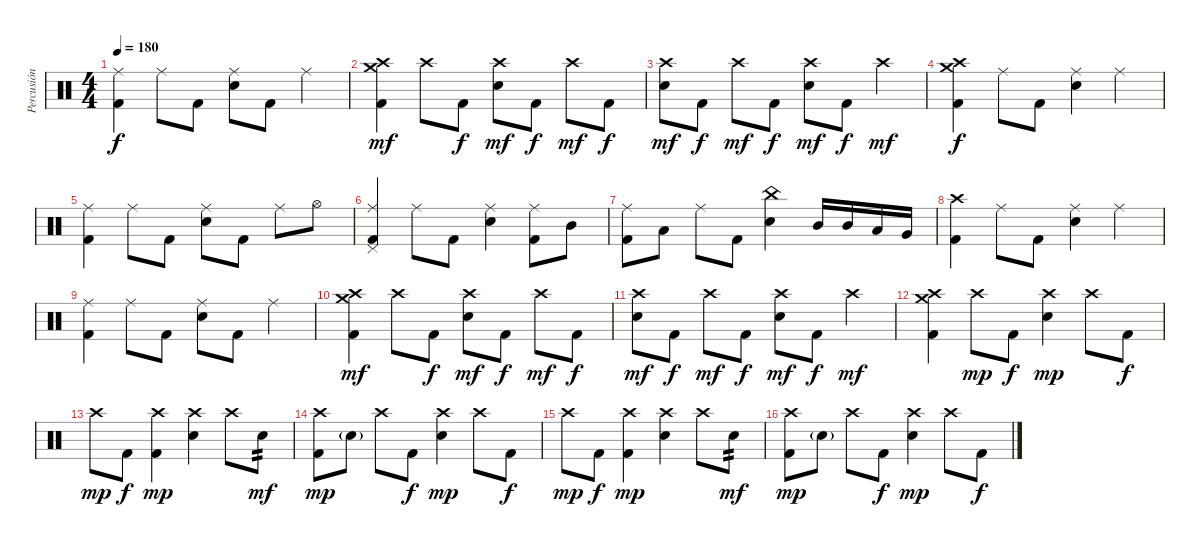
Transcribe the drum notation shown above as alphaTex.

\track ("Percusión" "Percusión") {instrument percussion}
\staff {score}
\articulation defaults
\ts (4 4)
\tempo 180
\clef neutral
\ks c
("Ride (middle)" "Kick (hit) 2").4{dy f} "Ride (middle)".8 "Kick (hit) 2".8 ("Ride (middle)" "Snare (hit) 2").8 "Kick (hit) 2".8 "Ride (middle)".4 |
("Crash medium (hit)" "Crash high (hit)" "Kick (hit) 2").4{dy mf} "Crash high (hit)".8 "Kick (hit) 2".8{dy f} ("Crash high (hit)" "Snare (hit) 2").8{dy mf} "Kick (hit) 2".8{dy f} "Crash high (hit)".8{dy mf} "Kick (hit) 2".8{dy f} |
("Crash high (hit)" "Snare (hit) 2").8{dy mf} "Kick (hit) 2".8{dy f} "Crash high (hit)".8{dy mf} "Kick (hit) 2".8{dy f} ("Crash high (hit)" "Snare (hit) 2").8{dy mf} "Kick (hit) 2".8{dy f} "Crash high (hit)".4{dy mf} |
("Crash high (hit)" "Crash medium (hit)" "Kick (hit) 2").4{dy f} "Ride (middle)".8 "Kick (hit) 2".8 ("Ride (middle)" "Snare (hit) 2").4 "Ride (middle)".4 |
("Ride (middle)" "Kick (hit) 2").4 "Ride (middle)".8 "Kick (hit) 2".8 ("Ride (middle)" "Snare (hit) 2").8 "Kick (hit) 2".8 "Ride (middle)".8 "Hi-Hat (open)".8 |
("Pedal Hi-Hat (hit)" "Ride (middle)" "Kick (hit) 2").4 "Ride (middle)".8 "Kick (hit) 2".8 ("Ride (middle)" "Snare (hit) 2").4 ("Ride (middle)" "Kick (hit) 2").8 "Mid Tom (hit)".8 |
("Ride (middle)" "Kick (hit) 2").8 "Low Tom (hit)".8 "Ride (middle)".8 "Kick (hit) 2".8 ("China (hit)" "Snare (hit) 2").4 "Mid Tom (hit)".16 "Mid Tom (hit)".16 "Low Tom (hit)".16 "Very Low Tom (hit)".16 |
("Crash high (hit)" "Kick (hit) 2").4 "Ride (middle)".8 "Kick (hit) 2".8 ("Ride (middle)" "Snare (hit) 2").4 "Ride (middle)".4 |
("Ride (middle)" "Kick (hit) 2").4 "Ride (middle)".8 "Kick (hit) 2".8 ("Ride (middle)" "Snare (hit) 2").8 "Kick (hit) 2".8 "Ride (middle)".4 |
("Crash medium (hit)" "Crash high (hit)" "Kick (hit) 2").4{dy mf} "Crash high (hit)".8 "Kick (hit) 2".8{dy f} ("Crash high (hit)" "Snare (hit) 2").8{dy mf} "Kick (hit) 2".8{dy f} "Crash high (hit)".8{dy mf} "Kick (hit) 2".8{dy f} |
("Crash high (hit)" "Snare (hit) 2").8{dy mf} "Kick (hit) 2".8{dy f} "Crash high (hit)".8{dy mf} "Kick (hit) 2".8{dy f} ("Crash high (hit)" "Snare (hit) 2").8{dy mf} "Kick (hit) 2".8{dy f} "Crash high (hit)".4{dy mf} |
("Crash medium (hit)" "Crash high (hit)" "Kick (hit) 2").4 "Crash high (hit)".8{dy mp} "Kick (hit) 2".8{dy f} ("Crash high (hit)" "Snare (hit) 2").4{dy mp} "Crash high (hit)".8 "Kick (hit) 2".8{dy f} |
"Crash high (hit)".8{dy mp} "Kick (hit) 2".8{dy f} ("Crash high (hit)" "Kick (hit) 2").4{dy mp} ("Crash high (hit)" "Snare (hit) 2").4 "Crash high (hit)".8 "Snare (hit) 2".8{tp 2 dy mf} |
("Crash high (hit)" "Kick (hit) 2").8{dy mp} "Snare (hit) 2"{g}.8 "Crash high (hit)".8 "Kick (hit) 2".8{dy f} ("Crash high (hit)" "Snare (hit) 2").4{dy mp} "Crash high (hit)".8 "Kick (hit) 2".8{dy f} |
"Crash high (hit)".8{dy mp} "Kick (hit) 2".8{dy f} ("Crash high (hit)" "Kick (hit) 2").4{dy mp} ("Crash high (hit)" "Snare (hit) 2").4 "Crash high (hit)".8 "Snare (hit) 2".8{tp 2 dy mf} |
("Crash high (hit)" "Kick (hit) 2").8{dy mp} "Snare (hit) 2"{g}.8 "Crash high (hit)".8 "Kick (hit) 2".8{dy f} ("Crash high (hit)" "Snare (hit) 2").4{dy mp} "Crash high (hit)".8 "Kick (hit) 2".8{dy f}
